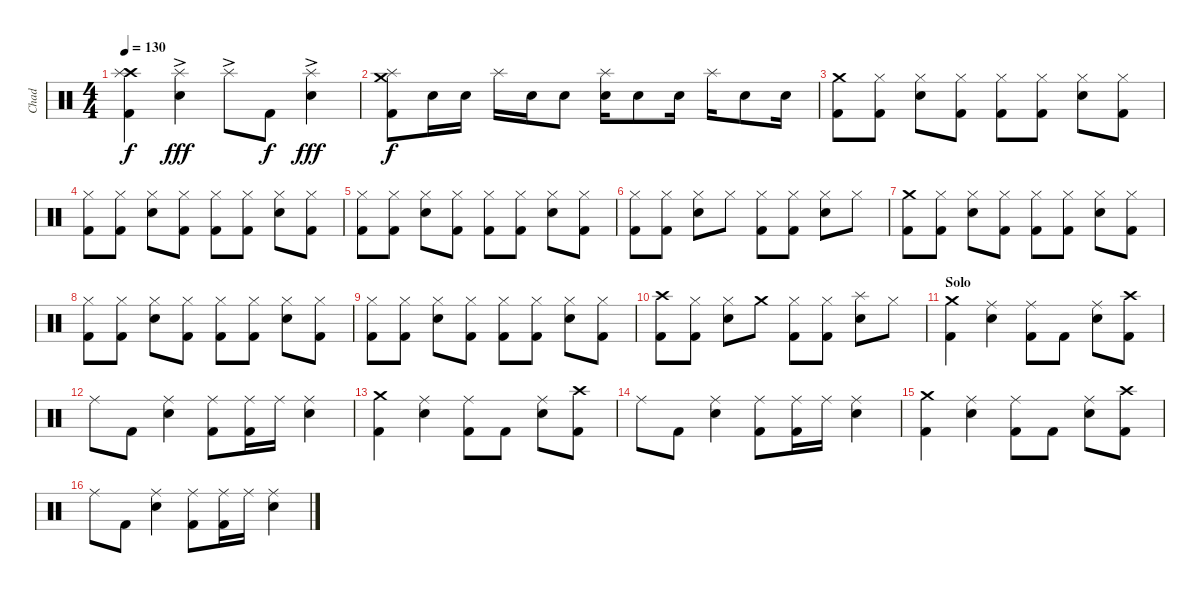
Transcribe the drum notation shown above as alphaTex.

\track ("Chad" "Chad") {instrument percussion}
\staff {score}
\articulation defaults
\ts (4 4)
\tempo 130
\clef neutral
\ks c
("Crash high (hit)" "Splash (hit)" "Kick (hit) 2").4{dy f} ("Splash (hit)"{ac} "Snare (hit) 2").4{dy fff} "Splash (hit)"{ac}.8 "Kick (hit) 2".8{dy f} ("Splash (hit)"{ac} "Snare (hit) 2").4{dy fff} |
("Crash medium (hit)" "Splash (hit)" "Kick (hit) 2").8{dy f} "Snare (hit) 2".16 "Snare (hit) 2".16 "Splash (hit)".16 "Snare (hit) 2".16 "Snare (hit) 2".8 ("Splash (hit)" "Snare (hit) 2").16 "Snare (hit) 2".8 "Snare (hit) 2".16 "Splash (hit)".16 "Snare (hit) 2".8 "Snare (hit) 2".16 |
("Crash medium (hit)" "Kick (hit) 2").8 ("Hi-Hat (closed)" "Kick (hit) 2").8 ("Hi-Hat (closed)" "Snare (hit) 2").8 ("Hi-Hat (closed)" "Kick (hit) 2").8 ("Hi-Hat (closed)" "Kick (hit) 2").8 ("Hi-Hat (closed)" "Kick (hit) 2").8 ("Hi-Hat (closed)" "Snare (hit) 2").8 ("Hi-Hat (closed)" "Kick (hit) 2").8 |
("Hi-Hat (closed)" "Kick (hit) 2").8 ("Hi-Hat (closed)" "Kick (hit) 2").8 ("Hi-Hat (closed)" "Snare (hit) 2").8 ("Hi-Hat (closed)" "Kick (hit) 2").8 ("Hi-Hat (closed)" "Kick (hit) 2").8 ("Hi-Hat (closed)" "Kick (hit) 2").8 ("Hi-Hat (closed)" "Snare (hit) 2").8 ("Hi-Hat (closed)" "Kick (hit) 2").8 |
("Hi-Hat (closed)" "Kick (hit) 2").8 ("Hi-Hat (closed)" "Kick (hit) 2").8 ("Hi-Hat (closed)" "Snare (hit) 2").8 ("Hi-Hat (closed)" "Kick (hit) 2").8 ("Hi-Hat (closed)" "Kick (hit) 2").8 ("Hi-Hat (closed)" "Kick (hit) 2").8 ("Hi-Hat (closed)" "Snare (hit) 2").8 ("Hi-Hat (closed)" "Kick (hit) 2").8 |
("Hi-Hat (closed)" "Kick (hit) 2").8 ("Hi-Hat (closed)" "Kick (hit) 2").8 ("Hi-Hat (closed)" "Snare (hit) 2").8 "Hi-Hat (closed)".8 ("Hi-Hat (closed)" "Kick (hit) 2").8 ("Hi-Hat (closed)" "Kick (hit) 2").8 ("Hi-Hat (closed)" "Snare (hit) 2").8 "Hi-Hat (closed)".8 |
("Crash medium (hit)" "Kick (hit) 2").8 ("Hi-Hat (closed)" "Kick (hit) 2").8 ("Hi-Hat (closed)" "Snare (hit) 2").8 ("Hi-Hat (closed)" "Kick (hit) 2").8 ("Hi-Hat (closed)" "Kick (hit) 2").8 ("Hi-Hat (closed)" "Kick (hit) 2").8 ("Hi-Hat (closed)" "Snare (hit) 2").8 ("Hi-Hat (closed)" "Kick (hit) 2").8 |
("Hi-Hat (closed)" "Kick (hit) 2").8 ("Hi-Hat (closed)" "Kick (hit) 2").8 ("Hi-Hat (closed)" "Snare (hit) 2").8 ("Hi-Hat (closed)" "Kick (hit) 2").8 ("Hi-Hat (closed)" "Kick (hit) 2").8 ("Hi-Hat (closed)" "Kick (hit) 2").8 ("Hi-Hat (closed)" "Snare (hit) 2").8 ("Hi-Hat (closed)" "Kick (hit) 2").8 |
("Hi-Hat (closed)" "Kick (hit) 2").8 ("Hi-Hat (closed)" "Kick (hit) 2").8 ("Hi-Hat (closed)" "Snare (hit) 2").8 ("Hi-Hat (closed)" "Kick (hit) 2").8 ("Hi-Hat (closed)" "Kick (hit) 2").8 ("Hi-Hat (closed)" "Kick (hit) 2").8 ("Hi-Hat (closed)" "Snare (hit) 2").8 ("Hi-Hat (closed)" "Kick (hit) 2").8 |
("Crash high (hit)" "Kick (hit) 2").8 ("Hi-Hat (closed)" "Kick (hit) 2").8 ("Hi-Hat (closed)" "Snare (hit) 2").8 "Crash medium (hit)".8 ("Hi-Hat (closed)" "Kick (hit) 2").8 ("Hi-Hat (closed)" "Kick (hit) 2").8 ("Splash (hit)" "Snare (hit) 2").8 "Hi-Hat (closed)".8 |
\section ("" "Solo")
("Crash medium (hit)" "Kick (hit) 2").4 ("Ride (middle)" "Snare (hit) 2").4 ("Ride (middle)" "Kick (hit) 2").8 "Kick (hit) 2".8 ("Ride (middle)" "Snare (hit) 2").8 ("Crash high (hit)" "Kick (hit) 2").8 |
"Ride (middle)".8 "Kick (hit) 2".8 ("Ride (middle)" "Snare (hit) 2").4 ("Ride (middle)" "Kick (hit) 2").8 ("Ride (middle)" "Kick (hit) 2").16 "Ride (middle)".16 ("Ride (middle)" "Snare (hit) 2").4 |
("Crash medium (hit)" "Kick (hit) 2").4 ("Ride (middle)" "Snare (hit) 2").4 ("Ride (middle)" "Kick (hit) 2").8 "Kick (hit) 2".8 ("Ride (middle)" "Snare (hit) 2").8 ("Crash high (hit)" "Kick (hit) 2").8 |
"Ride (middle)".8 "Kick (hit) 2".8 ("Ride (middle)" "Snare (hit) 2").4 ("Ride (middle)" "Kick (hit) 2").8 ("Ride (middle)" "Kick (hit) 2").16 "Ride (middle)".16 ("Ride (middle)" "Snare (hit) 2").4 |
("Crash medium (hit)" "Kick (hit) 2").4 ("Ride (middle)" "Snare (hit) 2").4 ("Ride (middle)" "Kick (hit) 2").8 "Kick (hit) 2".8 ("Ride (middle)" "Snare (hit) 2").8 ("Crash high (hit)" "Kick (hit) 2").8 |
"Ride (middle)".8 "Kick (hit) 2".8 ("Ride (middle)" "Snare (hit) 2").4 ("Ride (middle)" "Kick (hit) 2").8 ("Ride (middle)" "Kick (hit) 2").16 "Ride (middle)".16 ("Ride (middle)" "Snare (hit) 2").4
